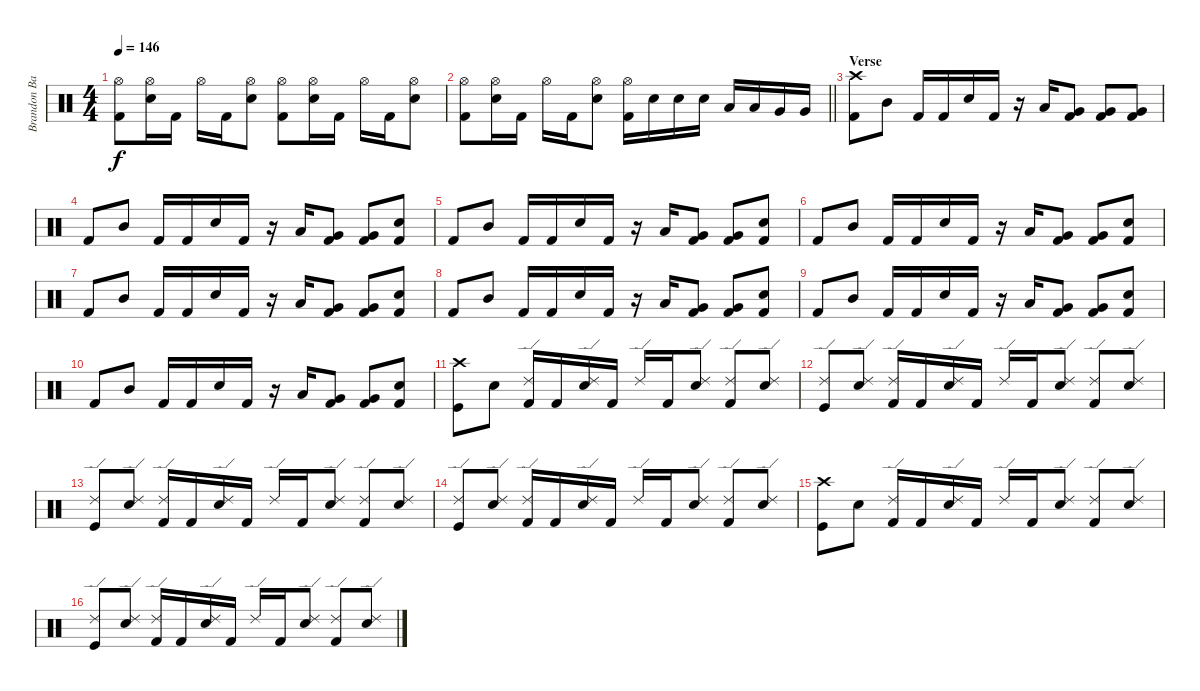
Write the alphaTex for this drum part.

\track ("Brandon Barnes - Drums" "Brandon Ba") {instrument percussion}
\staff {score}
\articulation defaults
\ts (4 4)
\tempo 146
\clef neutral
\ks c
("Hi-Hat (open)" "Kick (hit) 2").8{dy f} ("Snare (hit) 2" "Hi-Hat (open)").16 "Kick (hit) 2".16 "Hi-Hat (open)".16 "Kick (hit) 2".16 ("Snare (hit) 2" "Hi-Hat (open)").8 ("Hi-Hat (open)" "Kick (hit) 2").8 ("Snare (hit) 2" "Hi-Hat (open)").16 "Kick (hit) 2".16 "Hi-Hat (open)".16 "Kick (hit) 2".16 ("Snare (hit) 2" "Hi-Hat (open)").8 |
\barLineRight lightlight
("Hi-Hat (open)" "Kick (hit) 2").8 ("Snare (hit) 2" "Hi-Hat (open)").16 "Kick (hit) 2".16 "Hi-Hat (open)".16 "Kick (hit) 2".16 ("Snare (hit) 2" "Hi-Hat (open)").8 ("Hi-Hat (open)" "Kick (hit) 2").16 "Snare (hit) 2".16 "Snare (hit) 2".16 "Snare (hit) 2".16 "Low Tom (hit)".16 "Low Tom (hit)".16 "Very Low Tom (hit)".16 "Very Low Tom (hit)".16 |
\section ("" "Verse")
("Crash high (hit)" "Kick (hit) 2").8 "Mid Tom (hit)".8 "Kick (hit) 2".16 "Kick (hit) 2".16 "Snare (hit) 2".16 "Kick (hit) 2".16 r.16 "Low Tom (hit)".16 ("Kick (hit) 2" "Very Low Tom (hit)").8 ("Kick (hit) 2" "Very Low Tom (hit)").8 ("Kick (hit) 2" "Very Low Tom (hit)").8 |
"Kick (hit) 2".8 "Mid Tom (hit)".8 "Kick (hit) 2".16 "Kick (hit) 2".16 "Snare (hit) 2".16 "Kick (hit) 2".16 r.16 "Low Tom (hit)".16 ("Kick (hit) 2" "Very Low Tom (hit)").8 ("Kick (hit) 2" "Very Low Tom (hit)").8 ("Kick (hit) 2" "Snare (hit) 2").8 |
"Kick (hit) 2".8 "Mid Tom (hit)".8 "Kick (hit) 2".16 "Kick (hit) 2".16 "Snare (hit) 2".16 "Kick (hit) 2".16 r.16 "Low Tom (hit)".16 ("Kick (hit) 2" "Very Low Tom (hit)").8 ("Kick (hit) 2" "Very Low Tom (hit)").8 ("Kick (hit) 2" "Snare (hit) 2").8 |
"Kick (hit) 2".8 "Mid Tom (hit)".8 "Kick (hit) 2".16 "Kick (hit) 2".16 "Snare (hit) 2".16 "Kick (hit) 2".16 r.16 "Low Tom (hit)".16 ("Kick (hit) 2" "Very Low Tom (hit)").8 ("Kick (hit) 2" "Very Low Tom (hit)").8 ("Kick (hit) 2" "Snare (hit) 2").8 |
"Kick (hit) 2".8 "Mid Tom (hit)".8 "Kick (hit) 2".16 "Kick (hit) 2".16 "Snare (hit) 2".16 "Kick (hit) 2".16 r.16 "Low Tom (hit)".16 ("Kick (hit) 2" "Very Low Tom (hit)").8 ("Kick (hit) 2" "Very Low Tom (hit)").8 ("Kick (hit) 2" "Snare (hit) 2").8 |
"Kick (hit) 2".8 "Mid Tom (hit)".8 "Kick (hit) 2".16 "Kick (hit) 2".16 "Snare (hit) 2".16 "Kick (hit) 2".16 r.16 "Low Tom (hit)".16 ("Kick (hit) 2" "Very Low Tom (hit)").8 ("Kick (hit) 2" "Very Low Tom (hit)").8 ("Kick (hit) 2" "Snare (hit) 2").8 |
"Kick (hit) 2".8 "Mid Tom (hit)".8 "Kick (hit) 2".16 "Kick (hit) 2".16 "Snare (hit) 2".16 "Kick (hit) 2".16 r.16 "Low Tom (hit)".16 ("Kick (hit) 2" "Very Low Tom (hit)").8 ("Kick (hit) 2" "Very Low Tom (hit)").8 ("Kick (hit) 2" "Snare (hit) 2").8 |
"Kick (hit) 2".8 "Mid Tom (hit)".8 "Kick (hit) 2".16 "Kick (hit) 2".16 "Snare (hit) 2".16 "Kick (hit) 2".16 r.16 "Low Tom (hit)".16 ("Kick (hit) 2" "Very Low Tom (hit)").8 ("Kick (hit) 2" "Very Low Tom (hit)").8 ("Kick (hit) 2" "Snare (hit) 2").8 |
("Crash high (hit)" "Kick (hit)").8 "Snare (hit) 2".8 ("Kick (hit) 2" "Ride (edge) 2").16 "Kick (hit) 2".16 ("Snare (hit) 2" "Ride (edge) 2").16 "Kick (hit) 2".16 "Ride (edge) 2".16 "Kick (hit) 2".16 ("Snare (hit) 2" "Ride (edge) 2").8 ("Kick (hit) 2" "Ride (edge) 2").8 ("Snare (hit) 2" "Ride (edge) 2").8 |
("Ride (edge) 2" "Kick (hit)").8 ("Ride (edge) 2" "Snare (hit) 2").8 ("Kick (hit) 2" "Ride (edge) 2").16 "Kick (hit) 2".16 ("Snare (hit) 2" "Ride (edge) 2").16 "Kick (hit) 2".16 "Ride (edge) 2".16 "Kick (hit) 2".16 ("Snare (hit) 2" "Ride (edge) 2").8 ("Kick (hit) 2" "Ride (edge) 2").8 ("Snare (hit) 2" "Ride (edge) 2").8 |
("Ride (edge) 2" "Kick (hit)").8 ("Ride (edge) 2" "Snare (hit) 2").8 ("Kick (hit) 2" "Ride (edge) 2").16 "Kick (hit) 2".16 ("Snare (hit) 2" "Ride (edge) 2").16 "Kick (hit) 2".16 "Ride (edge) 2".16 "Kick (hit) 2".16 ("Snare (hit) 2" "Ride (edge) 2").8 ("Kick (hit) 2" "Ride (edge) 2").8 ("Snare (hit) 2" "Ride (edge) 2").8 |
("Ride (edge) 2" "Kick (hit)").8 ("Ride (edge) 2" "Snare (hit) 2").8 ("Kick (hit) 2" "Ride (edge) 2").16 "Kick (hit) 2".16 ("Snare (hit) 2" "Ride (edge) 2").16 "Kick (hit) 2".16 "Ride (edge) 2".16 "Kick (hit) 2".16 ("Snare (hit) 2" "Ride (edge) 2").8 ("Kick (hit) 2" "Ride (edge) 2").8 ("Snare (hit) 2" "Ride (edge) 2").8 |
("Crash high (hit)" "Kick (hit)").8 "Snare (hit) 2".8 ("Kick (hit) 2" "Ride (edge) 2").16 "Kick (hit) 2".16 ("Snare (hit) 2" "Ride (edge) 2").16 "Kick (hit) 2".16 "Ride (edge) 2".16 "Kick (hit) 2".16 ("Snare (hit) 2" "Ride (edge) 2").8 ("Kick (hit) 2" "Ride (edge) 2").8 ("Snare (hit) 2" "Ride (edge) 2").8 |
("Ride (edge) 2" "Kick (hit)").8 ("Ride (edge) 2" "Snare (hit) 2").8 ("Kick (hit) 2" "Ride (edge) 2").16 "Kick (hit) 2".16 ("Snare (hit) 2" "Ride (edge) 2").16 "Kick (hit) 2".16 "Ride (edge) 2".16 "Kick (hit) 2".16 ("Snare (hit) 2" "Ride (edge) 2").8 ("Kick (hit) 2" "Ride (edge) 2").8 ("Snare (hit) 2" "Ride (edge) 2").8
